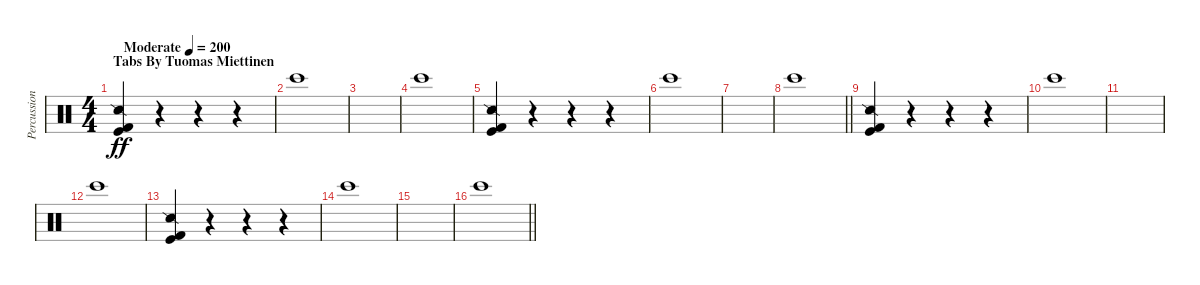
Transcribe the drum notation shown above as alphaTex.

\track ("Percussion" "Percussion") {instrument percussion}
\staff {score}
\articulation defaults
\ts (4 4)
\section ("" "Tabs By Tuomas Miettinen")
\tempo (200 "Moderate")
\clef neutral
\ks c
("Kick (hit)" "Snare (side stick) 2" "Kick (hit) 2").4{dy ff} r.4 r.4 r.4 |
"Bongo High (hit)".1 |
|
"Bongo High (hit)".1 |
("Kick (hit)" "Snare (side stick) 2" "Kick (hit) 2").4 r.4 r.4 r.4 |
"Bongo High (hit)".1 |
|
\barLineRight lightlight "Bongo High (hit)".1
|
\section ("" "")
("Kick (hit)" "Snare (side stick) 2" "Kick (hit) 2").4 r.4 r.4 r.4 |
"Bongo High (hit)".1 |
|
"Bongo High (hit)".1 |
("Kick (hit)" "Snare (side stick) 2" "Kick (hit) 2").4 r.4 r.4 r.4 |
"Bongo High (hit)".1 |
|
\barLineRight lightlight "Bongo High (hit)".1
